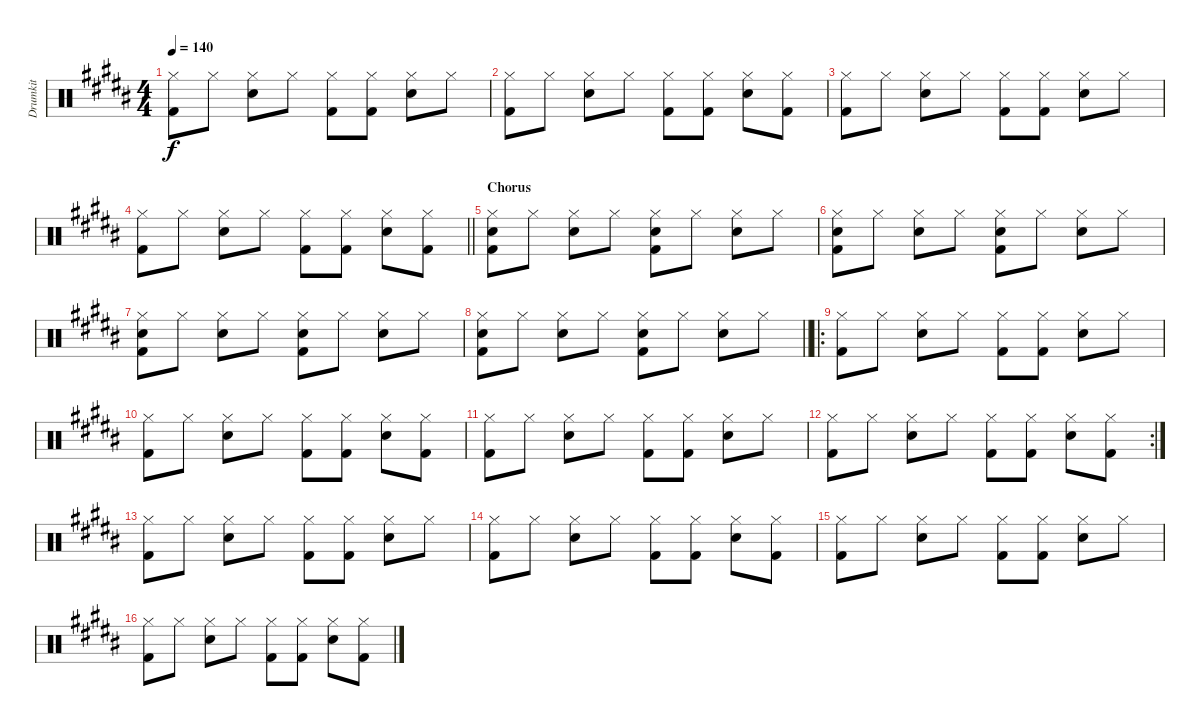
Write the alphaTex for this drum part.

\track ("Drumkit" "Drumkit") {instrument percussion}
\staff {score}
\articulation defaults
\ts (4 4)
\tempo 140
\clef neutral
\ks b
("Hi-Hat (closed)" "Kick (hit) 2").8{dy f} "Hi-Hat (closed)".8 ("Hi-Hat (closed)" "Snare (hit) 2").8 "Hi-Hat (closed)".8 ("Hi-Hat (closed)" "Kick (hit) 2").8 ("Hi-Hat (closed)" "Kick (hit) 2").8 ("Hi-Hat (closed)" "Snare (hit) 2").8 "Hi-Hat (closed)".8 |
("Hi-Hat (closed)" "Kick (hit) 2").8 "Hi-Hat (closed)".8 ("Hi-Hat (closed)" "Snare (hit) 2").8 "Hi-Hat (closed)".8 ("Hi-Hat (closed)" "Kick (hit) 2").8 ("Hi-Hat (closed)" "Kick (hit) 2").8 ("Hi-Hat (closed)" "Snare (hit) 2").8 ("Hi-Hat (closed)" "Kick (hit) 2").8 |
("Hi-Hat (closed)" "Kick (hit) 2").8 "Hi-Hat (closed)".8 ("Hi-Hat (closed)" "Snare (hit) 2").8 "Hi-Hat (closed)".8 ("Hi-Hat (closed)" "Kick (hit) 2").8 ("Hi-Hat (closed)" "Kick (hit) 2").8 ("Hi-Hat (closed)" "Snare (hit) 2").8 "Hi-Hat (closed)".8 |
\barLineRight lightlight
("Hi-Hat (closed)" "Kick (hit) 2").8 "Hi-Hat (closed)".8 ("Hi-Hat (closed)" "Snare (hit) 2").8 "Hi-Hat (closed)".8 ("Hi-Hat (closed)" "Kick (hit) 2").8 ("Hi-Hat (closed)" "Kick (hit) 2").8 ("Hi-Hat (closed)" "Snare (hit) 2").8 ("Hi-Hat (closed)" "Kick (hit) 2").8 |
\section ("" "Chorus")
("Hi-Hat (closed)" "Snare (hit) 2" "Kick (hit) 2").8 "Hi-Hat (closed)".8 ("Hi-Hat (closed)" "Snare (hit) 2").8 "Hi-Hat (closed)".8 ("Hi-Hat (closed)" "Snare (hit) 2" "Kick (hit) 2").8 "Hi-Hat (closed)".8 ("Hi-Hat (closed)" "Snare (hit) 2").8 "Hi-Hat (closed)".8 |
("Hi-Hat (closed)" "Snare (hit) 2" "Kick (hit) 2").8 "Hi-Hat (closed)".8 ("Hi-Hat (closed)" "Snare (hit) 2").8 "Hi-Hat (closed)".8 ("Hi-Hat (closed)" "Snare (hit) 2" "Kick (hit) 2").8 "Hi-Hat (closed)".8 ("Hi-Hat (closed)" "Snare (hit) 2").8 "Hi-Hat (closed)".8 |
("Hi-Hat (closed)" "Snare (hit) 2" "Kick (hit) 2").8 "Hi-Hat (closed)".8 ("Hi-Hat (closed)" "Snare (hit) 2").8 "Hi-Hat (closed)".8 ("Hi-Hat (closed)" "Snare (hit) 2" "Kick (hit) 2").8 "Hi-Hat (closed)".8 ("Hi-Hat (closed)" "Snare (hit) 2").8 "Hi-Hat (closed)".8 |
\barLineRight lightlight
("Hi-Hat (closed)" "Snare (hit) 2" "Kick (hit) 2").8 "Hi-Hat (closed)".8 ("Hi-Hat (closed)" "Snare (hit) 2").8 "Hi-Hat (closed)".8 ("Hi-Hat (closed)" "Snare (hit) 2" "Kick (hit) 2").8 "Hi-Hat (closed)".8 ("Hi-Hat (closed)" "Snare (hit) 2").8 "Hi-Hat (closed)".8 |
\ro
("Hi-Hat (closed)" "Kick (hit) 2").8 "Hi-Hat (closed)".8 ("Hi-Hat (closed)" "Snare (hit) 2").8 "Hi-Hat (closed)".8 ("Hi-Hat (closed)" "Kick (hit) 2").8 ("Hi-Hat (closed)" "Kick (hit) 2").8 ("Hi-Hat (closed)" "Snare (hit) 2").8 "Hi-Hat (closed)".8 |
("Hi-Hat (closed)" "Kick (hit) 2").8 "Hi-Hat (closed)".8 ("Hi-Hat (closed)" "Snare (hit) 2").8 "Hi-Hat (closed)".8 ("Hi-Hat (closed)" "Kick (hit) 2").8 ("Hi-Hat (closed)" "Kick (hit) 2").8 ("Hi-Hat (closed)" "Snare (hit) 2").8 ("Hi-Hat (closed)" "Kick (hit) 2").8 |
("Hi-Hat (closed)" "Kick (hit) 2").8 "Hi-Hat (closed)".8 ("Hi-Hat (closed)" "Snare (hit) 2").8 "Hi-Hat (closed)".8 ("Hi-Hat (closed)" "Kick (hit) 2").8 ("Hi-Hat (closed)" "Kick (hit) 2").8 ("Hi-Hat (closed)" "Snare (hit) 2").8 "Hi-Hat (closed)".8 |
\rc 2
("Hi-Hat (closed)" "Kick (hit) 2").8 "Hi-Hat (closed)".8 ("Hi-Hat (closed)" "Snare (hit) 2").8 "Hi-Hat (closed)".8 ("Hi-Hat (closed)" "Kick (hit) 2").8 ("Hi-Hat (closed)" "Kick (hit) 2").8 ("Hi-Hat (closed)" "Snare (hit) 2").8 ("Hi-Hat (closed)" "Kick (hit) 2").8 |
("Hi-Hat (closed)" "Kick (hit) 2").8 "Hi-Hat (closed)".8 ("Hi-Hat (closed)" "Snare (hit) 2").8 "Hi-Hat (closed)".8 ("Hi-Hat (closed)" "Kick (hit) 2").8 ("Hi-Hat (closed)" "Kick (hit) 2").8 ("Hi-Hat (closed)" "Snare (hit) 2").8 "Hi-Hat (closed)".8 |
("Hi-Hat (closed)" "Kick (hit) 2").8 "Hi-Hat (closed)".8 ("Hi-Hat (closed)" "Snare (hit) 2").8 "Hi-Hat (closed)".8 ("Hi-Hat (closed)" "Kick (hit) 2").8 ("Hi-Hat (closed)" "Kick (hit) 2").8 ("Hi-Hat (closed)" "Snare (hit) 2").8 ("Hi-Hat (closed)" "Kick (hit) 2").8 |
("Hi-Hat (closed)" "Kick (hit) 2").8 "Hi-Hat (closed)".8 ("Hi-Hat (closed)" "Snare (hit) 2").8 "Hi-Hat (closed)".8 ("Hi-Hat (closed)" "Kick (hit) 2").8 ("Hi-Hat (closed)" "Kick (hit) 2").8 ("Hi-Hat (closed)" "Snare (hit) 2").8 "Hi-Hat (closed)".8 |
("Hi-Hat (closed)" "Kick (hit) 2").8 "Hi-Hat (closed)".8 ("Hi-Hat (closed)" "Snare (hit) 2").8 "Hi-Hat (closed)".8 ("Hi-Hat (closed)" "Kick (hit) 2").8 ("Hi-Hat (closed)" "Kick (hit) 2").8 ("Hi-Hat (closed)" "Snare (hit) 2").8 ("Hi-Hat (closed)" "Kick (hit) 2").8
